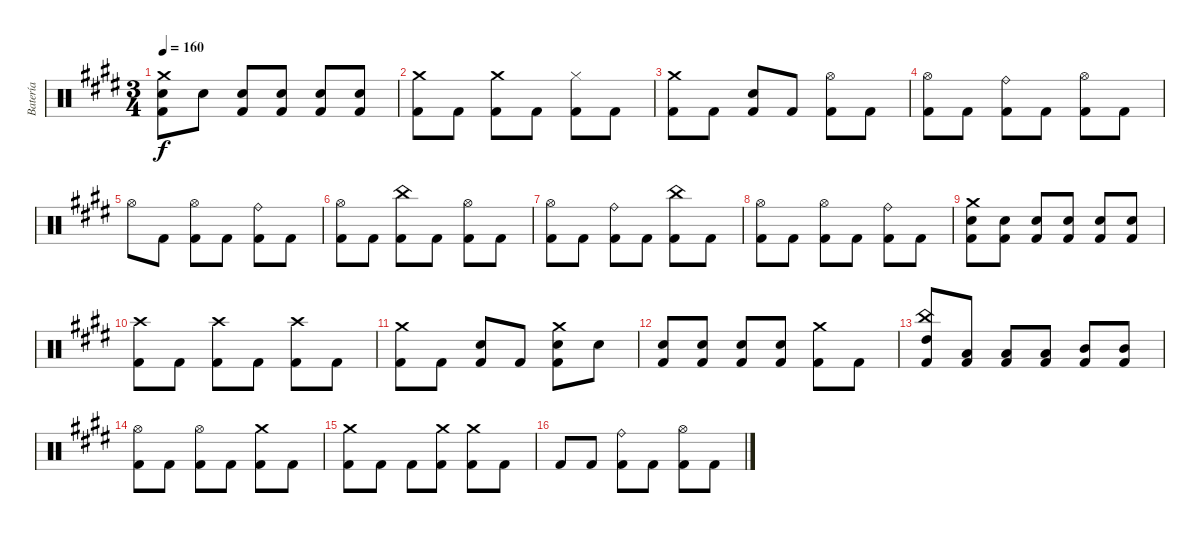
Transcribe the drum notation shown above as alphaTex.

\track ("Batería" "Batería") {instrument percussion}
\staff {score}
\articulation defaults
\ts (3 4)
\tempo 160
\clef neutral
\ks c#minor
("Crash medium (hit)" "Snare (hit) 2" "Kick (hit) 2").8{dy f} "Snare (hit) 2".8 ("Snare (hit) 2" "Kick (hit) 2").8 ("Snare (hit) 2" "Kick (hit) 2").8 ("Snare (hit) 2" "Kick (hit) 2").8 ("Snare (hit) 2" "Kick (hit) 2").8 |
("Crash medium (hit)" "Kick (hit) 2").8 "Kick (hit) 2".8 ("Crash medium (hit)" "Kick (hit) 2").8 "Kick (hit) 2".8 ("Hi-Hat (closed)" "Kick (hit) 2").8 "Kick (hit) 2".8 |
("Crash medium (hit)" "Kick (hit) 2").8 "Kick (hit) 2".8 ("Snare (hit) 2" "Kick (hit) 2").8 "Kick (hit) 2".8 ("Hi-Hat (open)" "Kick (hit) 2").8 "Kick (hit) 2".8 |
("Hi-Hat (open)" "Kick (hit) 2").8 "Kick (hit) 2".8 ("Ride (bell)" "Kick (hit) 2").8 "Kick (hit) 2".8 ("Hi-Hat (open)" "Kick (hit) 2").8 "Kick (hit) 2".8 |
"Hi-Hat (open)".8 "Kick (hit) 2".8 ("Hi-Hat (open)" "Kick (hit) 2").8 "Kick (hit) 2".8 ("Ride (bell)" "Kick (hit) 2").8 "Kick (hit) 2".8 |
("Hi-Hat (open)" "Kick (hit) 2").8 "Kick (hit) 2".8 ("China (hit)" "Kick (hit) 2").8 "Kick (hit) 2".8 ("Hi-Hat (open)" "Kick (hit) 2").8 "Kick (hit) 2".8 |
("Hi-Hat (open)" "Kick (hit) 2").8 "Kick (hit) 2".8 ("Ride (bell)" "Kick (hit) 2").8 "Kick (hit) 2".8 ("China (hit)" "Kick (hit) 2").8 "Kick (hit) 2".8 |
("Hi-Hat (open)" "Kick (hit) 2").8 "Kick (hit) 2".8 ("Hi-Hat (open)" "Kick (hit) 2").8 "Kick (hit) 2".8 ("Ride (bell)" "Kick (hit) 2").8 "Kick (hit) 2".8 |
("Crash medium (hit)" "Snare (hit) 2" "Kick (hit) 2").8 ("Snare (hit) 2" "Kick (hit) 2").8 ("Snare (hit) 2" "Kick (hit) 2").8 ("Snare (hit) 2" "Kick (hit) 2").8 ("Snare (hit) 2" "Kick (hit) 2").8 ("Snare (hit) 2" "Kick (hit) 2").8 |
("Crash high (hit)" "Kick (hit) 2").8 "Kick (hit) 2".8 ("Crash high (hit)" "Kick (hit) 2").8 "Kick (hit) 2".8 ("Crash high (hit)" "Kick (hit) 2").8 "Kick (hit) 2".8 |
("Crash medium (hit)" "Kick (hit) 2").8 "Kick (hit) 2".8 ("Snare (hit) 2" "Kick (hit) 2").8 "Kick (hit) 2".8 ("Crash medium (hit)" "Snare (hit) 2" "Kick (hit) 2").8 "Snare (hit) 2".8 |
("Snare (hit) 2" "Kick (hit) 2").8 ("Snare (hit) 2" "Kick (hit) 2").8 ("Snare (hit) 2" "Kick (hit) 2").8 ("Snare (hit) 2" "Kick (hit) 2").8 ("Crash medium (hit)" "Kick (hit) 2").8 "Kick (hit) 2".8 |
("China (hit)" "High Tom (hit)" "Kick (hit) 2").8 ("Low Tom (hit)" "Kick (hit) 2").8 ("Low Tom (hit)" "Kick (hit) 2").8 ("Low Tom (hit)" "Kick (hit) 2").8 ("Mid Tom (hit)" "Kick (hit) 2").8 ("Mid Tom (hit)" "Kick (hit) 2").8 |
("Hi-Hat (open)" "Kick (hit) 2").8 "Kick (hit) 2".8 ("Hi-Hat (open)" "Kick (hit) 2").8 "Kick (hit) 2".8 ("Crash medium (hit)" "Kick (hit) 2").8 "Kick (hit) 2".8 |
("Crash medium (hit)" "Kick (hit) 2").8 "Kick (hit) 2".8 "Kick (hit) 2".8 ("Crash medium (hit)" "Kick (hit) 2").8 ("Crash medium (hit)" "Kick (hit) 2").8 "Kick (hit) 2".8 |
"Kick (hit) 2".8 "Kick (hit) 2".8 ("Ride (bell)" "Kick (hit) 2").8 "Kick (hit) 2".8 ("Hi-Hat (open)" "Kick (hit) 2").8 "Kick (hit) 2".8
